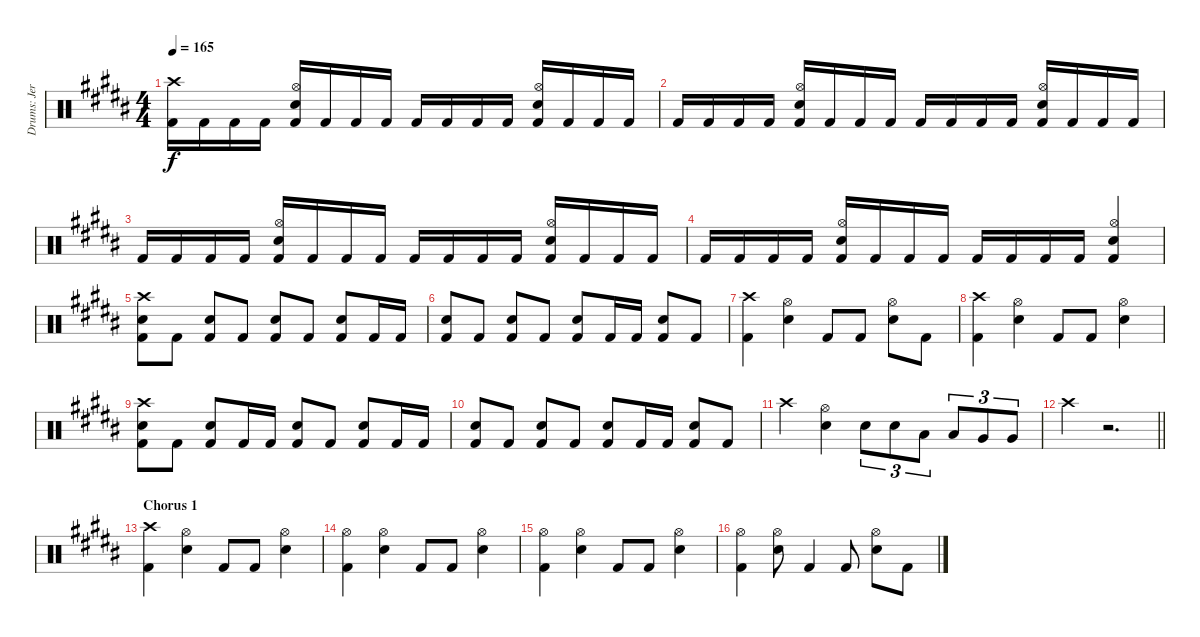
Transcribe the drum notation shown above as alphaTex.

\track ("Drums: Jere Luokkamäki" "Drums: Jer") {instrument percussion}
\staff {score}
\articulation defaults
\ts (4 4)
\section ("" "")
\tempo 165
\clef neutral
\ks g#minor
("Crash high (hit)" "Kick (hit) 2").16{dy f} "Kick (hit) 2".16 "Kick (hit) 2".16 "Kick (hit) 2".16 ("Hi-Hat (open)" "Electric Snare (hit)" "Kick (hit) 2").16 "Kick (hit) 2".16 "Kick (hit) 2".16 "Kick (hit) 2".16 "Kick (hit) 2".16 "Kick (hit) 2".16 "Kick (hit) 2".16 "Kick (hit) 2".16 ("Hi-Hat (open)" "Electric Snare (hit)" "Kick (hit) 2").16 "Kick (hit) 2".16 "Kick (hit) 2".16 "Kick (hit) 2".16 |
"Kick (hit) 2".16 "Kick (hit) 2".16 "Kick (hit) 2".16 "Kick (hit) 2".16 ("Hi-Hat (open)" "Electric Snare (hit)" "Kick (hit) 2").16 "Kick (hit) 2".16 "Kick (hit) 2".16 "Kick (hit) 2".16 "Kick (hit) 2".16 "Kick (hit) 2".16 "Kick (hit) 2".16 "Kick (hit) 2".16 ("Hi-Hat (open)" "Electric Snare (hit)" "Kick (hit) 2").16 "Kick (hit) 2".16 "Kick (hit) 2".16 "Kick (hit) 2".16 |
"Kick (hit) 2".16 "Kick (hit) 2".16 "Kick (hit) 2".16 "Kick (hit) 2".16 ("Hi-Hat (open)" "Electric Snare (hit)" "Kick (hit) 2").16 "Kick (hit) 2".16 "Kick (hit) 2".16 "Kick (hit) 2".16 "Kick (hit) 2".16 "Kick (hit) 2".16 "Kick (hit) 2".16 "Kick (hit) 2".16 ("Hi-Hat (open)" "Electric Snare (hit)" "Kick (hit) 2").16 "Kick (hit) 2".16 "Kick (hit) 2".16 "Kick (hit) 2".16 |
"Kick (hit) 2".16 "Kick (hit) 2".16 "Kick (hit) 2".16 "Kick (hit) 2".16 ("Hi-Hat (open)" "Electric Snare (hit)" "Kick (hit) 2").16 "Kick (hit) 2".16 "Kick (hit) 2".16 "Kick (hit) 2".16 "Kick (hit) 2".16 "Kick (hit) 2".16 "Kick (hit) 2".16 "Kick (hit) 2".16 ("Hi-Hat (open)" "Electric Snare (hit)" "Kick (hit) 2").4 |
("Crash high (hit)" "Electric Snare (hit)" "Kick (hit) 2").8 "Kick (hit) 2".8 ("Electric Snare (hit)" "Kick (hit) 2").8 "Kick (hit) 2".8 ("Electric Snare (hit)" "Kick (hit) 2").8 "Kick (hit) 2".8 ("Electric Snare (hit)" "Kick (hit) 2").8 "Kick (hit) 2".16 "Kick (hit) 2".16 |
("Electric Snare (hit)" "Kick (hit) 2").8 "Kick (hit) 2".8 ("Electric Snare (hit)" "Kick (hit) 2").8 "Kick (hit) 2".8 ("Electric Snare (hit)" "Kick (hit) 2").8 "Kick (hit) 2".16 "Kick (hit) 2".16 ("Electric Snare (hit)" "Kick (hit) 2").8 "Kick (hit) 2".8 |
("Crash high (hit)" "Kick (hit) 2").4 ("Hi-Hat (open)" "Electric Snare (hit)").4 "Kick (hit) 2".8 "Kick (hit) 2".8 ("Hi-Hat (open)" "Electric Snare (hit)").8 "Kick (hit) 2".8 |
("Crash high (hit)" "Kick (hit) 2").4 ("Hi-Hat (open)" "Electric Snare (hit)").4 "Kick (hit) 2".8 "Kick (hit) 2".8 ("Hi-Hat (open)" "Electric Snare (hit)").4 |
("Crash high (hit)" "Electric Snare (hit)" "Kick (hit) 2").8 "Kick (hit) 2".8 ("Electric Snare (hit)" "Kick (hit) 2").8 "Kick (hit) 2".16 "Kick (hit) 2".16 ("Electric Snare (hit)" "Kick (hit) 2").8 "Kick (hit) 2".8 ("Electric Snare (hit)" "Kick (hit) 2").8 "Kick (hit) 2".16 "Kick (hit) 2".16 |
("Electric Snare (hit)" "Kick (hit) 2").8 "Kick (hit) 2".8 ("Electric Snare (hit)" "Kick (hit) 2").8 "Kick (hit) 2".8 ("Electric Snare (hit)" "Kick (hit) 2").8 "Kick (hit) 2".16 "Kick (hit) 2".16 ("Electric Snare (hit)" "Kick (hit) 2").8 "Kick (hit) 2".8 |
"Crash high (hit)".4 ("Hi-Hat (open)" "Electric Snare (hit)").4 "Electric Snare (hit)".8{tu (3 2)} "Electric Snare (hit)".8{tu (3 2)} "Low Tom (hit)".8{tu (3 2)} "Low Tom (hit)".8{tu (3 2)} "Very Low Tom (hit)".8{tu (3 2)} "Very Low Tom (hit)".8{tu (3 2)} |
\barLineRight lightlight "Crash high (hit)".4
r.2{d} |
\section ("" "Chorus 1")
("Crash high (hit)" "Kick (hit) 2").4 ("Hi-Hat (open)" "Electric Snare (hit)").4 "Kick (hit) 2".8 "Kick (hit) 2".8 ("Hi-Hat (open)" "Electric Snare (hit)").4 |
("Hi-Hat (open)" "Kick (hit) 2").4 ("Hi-Hat (open)" "Electric Snare (hit)").4 "Kick (hit) 2".8 "Kick (hit) 2".8 ("Hi-Hat (open)" "Electric Snare (hit)").4 |
("Hi-Hat (open)" "Kick (hit) 2").4 ("Hi-Hat (open)" "Electric Snare (hit)").4 "Kick (hit) 2".8 "Kick (hit) 2".8 ("Hi-Hat (open)" "Electric Snare (hit)").4 |
("Hi-Hat (open)" "Kick (hit) 2").4 ("Hi-Hat (open)" "Electric Snare (hit)").8 "Kick (hit) 2".4 "Kick (hit) 2".8 ("Hi-Hat (open)" "Electric Snare (hit)").8 "Kick (hit) 2".8
